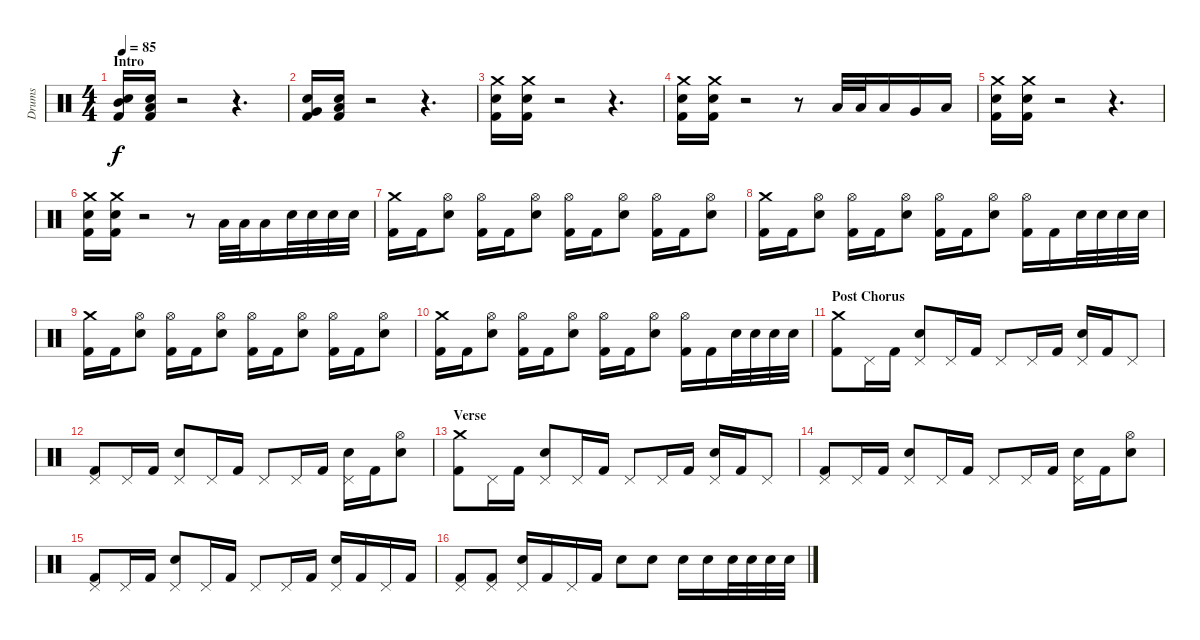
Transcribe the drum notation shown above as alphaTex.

\track ("Drums" "Drums") {instrument percussion}
\staff {score}
\articulation defaults
\ts (4 4)
\section ("" "Intro")
\tempo 85
\clef neutral
\ks c
("Mid Tom (hit)" "Electric Snare (hit)" "Kick (hit) 2").16{dy f} ("Low Tom (hit)" "Electric Snare (hit)" "Kick (hit) 2").16 r.2 r.4{d} |
("Very Low Tom (hit)" "Electric Snare (hit)" "Kick (hit) 2").16 ("Low Floor Tom (hit)" "Electric Snare (hit)" "Kick (hit) 2").16 r.2 r.4{d} |
("Crash medium (hit)" "Electric Snare (hit)" "Kick (hit) 2").16 ("Crash medium (hit)" "Electric Snare (hit)" "Kick (hit) 2").16 r.2 r.4{d} |
("Crash medium (hit)" "Electric Snare (hit)" "Kick (hit) 2").16 ("Crash medium (hit)" "Electric Snare (hit)" "Kick (hit) 2").16 r.2 r.8 "Low Tom (hit)".32 "Low Tom (hit)".32 "Low Tom (hit)".16 "Very Low Tom (hit)".16 "Low Floor Tom (hit)".16 |
("Crash medium (hit)" "Electric Snare (hit)" "Kick (hit) 2").16 ("Crash medium (hit)" "Electric Snare (hit)" "Kick (hit) 2").16 r.2 r.4{d} |
("Crash medium (hit)" "Electric Snare (hit)" "Kick (hit) 2").16 ("Crash medium (hit)" "Electric Snare (hit)" "Kick (hit) 2").16 r.2 r.8 "Low Tom (hit)".32 "Low Tom (hit)".32 "Low Tom (hit)".16 "Electric Snare (hit)".32 "Electric Snare (hit)".32 "Electric Snare (hit)".32 "Electric Snare (hit)".32 |
("Crash medium (hit)" "Kick (hit) 2").16 "Kick (hit) 2".16 ("Hi-Hat (open)" "Electric Snare (hit)").8 ("Hi-Hat (open)" "Kick (hit) 2").16 "Kick (hit) 2".16 ("Hi-Hat (open)" "Electric Snare (hit)").8 ("Hi-Hat (open)" "Kick (hit) 2").16 "Kick (hit) 2".16 ("Hi-Hat (open)" "Electric Snare (hit)").8 ("Hi-Hat (open)" "Kick (hit) 2").16 "Kick (hit) 2".16 ("Hi-Hat (open)" "Electric Snare (hit)").8 |
("Crash medium (hit)" "Kick (hit) 2").16 "Kick (hit) 2".16 ("Hi-Hat (open)" "Electric Snare (hit)").8 ("Hi-Hat (open)" "Kick (hit) 2").16 "Kick (hit) 2".16 ("Hi-Hat (open)" "Electric Snare (hit)").8 ("Hi-Hat (open)" "Kick (hit) 2").16 "Kick (hit) 2".16 ("Hi-Hat (open)" "Electric Snare (hit)").8 ("Hi-Hat (open)" "Kick (hit) 2").16 "Kick (hit) 2".16 "Electric Snare (hit)".32 "Electric Snare (hit)".32 "Electric Snare (hit)".32 "Electric Snare (hit)".32 |
("Crash medium (hit)" "Kick (hit) 2").16 "Kick (hit) 2".16 ("Hi-Hat (open)" "Electric Snare (hit)").8 ("Hi-Hat (open)" "Kick (hit) 2").16 "Kick (hit) 2".16 ("Hi-Hat (open)" "Electric Snare (hit)").8 ("Hi-Hat (open)" "Kick (hit) 2").16 "Kick (hit) 2".16 ("Hi-Hat (open)" "Electric Snare (hit)").8 ("Hi-Hat (open)" "Kick (hit) 2").16 "Kick (hit) 2".16 ("Hi-Hat (open)" "Electric Snare (hit)").8 |
("Crash medium (hit)" "Kick (hit) 2").16 "Kick (hit) 2".16 ("Hi-Hat (open)" "Electric Snare (hit)").8 ("Hi-Hat (open)" "Kick (hit) 2").16 "Kick (hit) 2".16 ("Hi-Hat (open)" "Electric Snare (hit)").8 ("Hi-Hat (open)" "Kick (hit) 2").16 "Kick (hit) 2".16 ("Hi-Hat (open)" "Electric Snare (hit)").8 ("Hi-Hat (open)" "Kick (hit) 2").16 "Kick (hit) 2".16 "Electric Snare (hit)".32 "Electric Snare (hit)".32 "Electric Snare (hit)".32 "Electric Snare (hit)".32 |
\section ("" "Post Chorus")
("Crash medium (hit)" "Kick (hit) 2").8 "Pedal Hi-Hat (hit)".16 "Kick (hit) 2".16 ("Pedal Hi-Hat (hit)" "Electric Snare (hit)").8 "Pedal Hi-Hat (hit)".16 "Kick (hit) 2".16 "Pedal Hi-Hat (hit)".8 "Pedal Hi-Hat (hit)".16 "Kick (hit) 2".16 ("Pedal Hi-Hat (hit)" "Electric Snare (hit)").16 "Kick (hit) 2".16 "Pedal Hi-Hat (hit)".8 |
("Pedal Hi-Hat (hit)" "Kick (hit) 2").8 "Pedal Hi-Hat (hit)".16 "Kick (hit) 2".16 ("Pedal Hi-Hat (hit)" "Electric Snare (hit)").8 "Pedal Hi-Hat (hit)".16 "Kick (hit) 2".16 "Pedal Hi-Hat (hit)".8 "Pedal Hi-Hat (hit)".16 "Kick (hit) 2".16 ("Pedal Hi-Hat (hit)" "Electric Snare (hit)").16 "Kick (hit) 2".16 ("Hi-Hat (open)" "Electric Snare (hit)").8 |
\section ("" "Verse")
("Crash medium (hit)" "Kick (hit) 2").8 "Pedal Hi-Hat (hit)".16 "Kick (hit) 2".16 ("Pedal Hi-Hat (hit)" "Electric Snare (hit)").8 "Pedal Hi-Hat (hit)".16 "Kick (hit) 2".16 "Pedal Hi-Hat (hit)".8 "Pedal Hi-Hat (hit)".16 "Kick (hit) 2".16 ("Pedal Hi-Hat (hit)" "Electric Snare (hit)").16 "Kick (hit) 2".16 "Pedal Hi-Hat (hit)".8 |
("Pedal Hi-Hat (hit)" "Kick (hit) 2").8 "Pedal Hi-Hat (hit)".16 "Kick (hit) 2".16 ("Pedal Hi-Hat (hit)" "Electric Snare (hit)").8 "Pedal Hi-Hat (hit)".16 "Kick (hit) 2".16 "Pedal Hi-Hat (hit)".8 "Pedal Hi-Hat (hit)".16 "Kick (hit) 2".16 ("Pedal Hi-Hat (hit)" "Electric Snare (hit)").16 "Kick (hit) 2".16 ("Hi-Hat (open)" "Electric Snare (hit)").8 |
("Pedal Hi-Hat (hit)" "Kick (hit) 2").8 "Pedal Hi-Hat (hit)".16 "Kick (hit) 2".16 ("Pedal Hi-Hat (hit)" "Electric Snare (hit)").8 "Pedal Hi-Hat (hit)".16 "Kick (hit) 2".16 "Pedal Hi-Hat (hit)".8 "Pedal Hi-Hat (hit)".16 "Kick (hit) 2".16 ("Pedal Hi-Hat (hit)" "Electric Snare (hit)").16 "Kick (hit) 2".16 "Pedal Hi-Hat (hit)".16 "Kick (hit) 2".16 |
("Pedal Hi-Hat (hit)" "Kick (hit) 2").8 ("Pedal Hi-Hat (hit)" "Kick (hit) 2").8 ("Pedal Hi-Hat (hit)" "Electric Snare (hit)").16 "Kick (hit) 2".16 "Pedal Hi-Hat (hit)".16 "Kick (hit) 2".16 "Electric Snare (hit)".8 "Electric Snare (hit)".8 "Electric Snare (hit)".16 "Electric Snare (hit)".16 "Electric Snare (hit)".32 "Electric Snare (hit)".32 "Electric Snare (hit)".32 "Electric Snare (hit)".32
